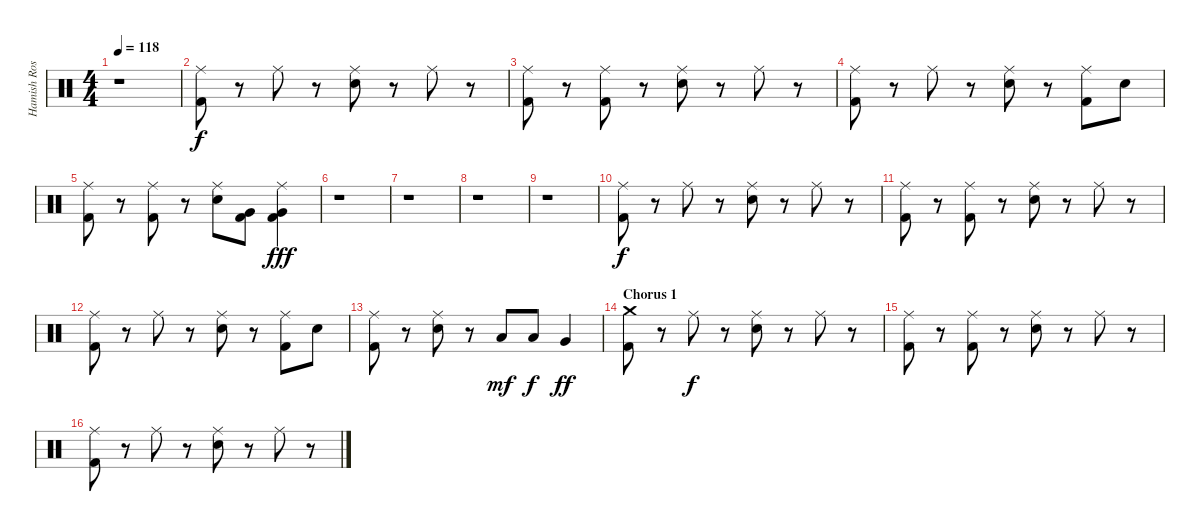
\track ("Hamish Rosser" "Hamish Ros") {instrument percussion}
\staff {score}
\articulation defaults
\ts (4 4)
\tempo 118
\clef neutral
\ks c
r.1{dy fff} |
("Ride (middle)" "Kick (hit) 2").8{dy f} r.8 "Ride (middle)".8 r.8 ("Ride (middle)" "Electric Snare (hit)").8 r.8 "Ride (middle)".8 r.8 |
("Ride (middle)" "Kick (hit) 2").8 r.8 ("Ride (middle)" "Kick (hit) 2").8 r.8 ("Ride (middle)" "Electric Snare (hit)").8 r.8 "Ride (middle)".8 r.8 |
("Ride (middle)" "Kick (hit) 2").8 r.8 "Ride (middle)".8 r.8 ("Ride (middle)" "Electric Snare (hit)").8 r.8 ("Ride (middle)" "Kick (hit) 2").8 "Electric Snare (hit)".8 |
("Ride (middle)" "Kick (hit) 2").8 r.8 ("Ride (middle)" "Kick (hit) 2").8 r.8 ("Ride (middle)" "Electric Snare (hit)").8 ("Very Low Tom (hit)" "Kick (hit) 2").8 ("Ride (middle)" "Very Low Tom (hit)" "Kick (hit) 2").4{dy fff} |
r.1 |
r.1 |
r.1 |
r.1 |
("Ride (middle)" "Kick (hit) 2").8{dy f} r.8 "Ride (middle)".8 r.8 ("Ride (middle)" "Electric Snare (hit)").8 r.8 "Ride (middle)".8 r.8 |
("Ride (middle)" "Kick (hit) 2").8 r.8 ("Ride (middle)" "Kick (hit) 2").8 r.8 ("Ride (middle)" "Electric Snare (hit)").8 r.8 "Ride (middle)".8 r.8 |
("Ride (middle)" "Kick (hit) 2").8 r.8 "Ride (middle)".8 r.8 ("Ride (middle)" "Electric Snare (hit)").8 r.8 ("Ride (middle)" "Kick (hit) 2").8 "Electric Snare (hit)".8 |
("Ride (middle)" "Kick (hit) 2").8 r.8 ("Ride (middle)" "Electric Snare (hit)").8 r.8 "Low Tom (hit)".8{dy mf} "Low Tom (hit)".8{dy f} "Very Low Tom (hit)".4{dy ff} |
\section ("" "Chorus 1")
("Crash medium (hit)" "Kick (hit) 2").8 r.8 "Ride (middle)".8{dy f} r.8 ("Ride (middle)" "Electric Snare (hit)").8 r.8 "Ride (middle)".8 r.8 |
("Ride (middle)" "Kick (hit) 2").8 r.8 ("Ride (middle)" "Kick (hit) 2").8 r.8 ("Ride (middle)" "Electric Snare (hit)").8 r.8 "Ride (middle)".8 r.8 |
("Ride (middle)" "Kick (hit) 2").8 r.8 "Ride (middle)".8 r.8 ("Ride (middle)" "Electric Snare (hit)").8 r.8 "Ride (middle)".8 r.8
